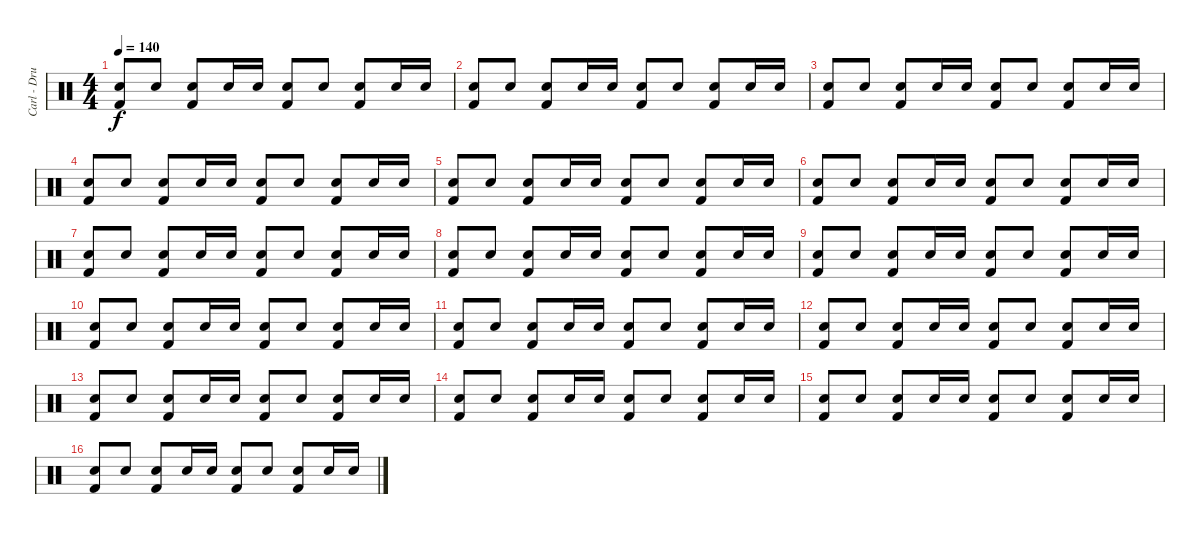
\track ("Carl - Drums" "Carl - Dru") {instrument percussion}
\staff {score}
\articulation defaults
\ts (4 4)
\tempo 140
\clef neutral
\ks c
("Electric Snare (hit)" "Kick (hit) 2").8{dy f} "Electric Snare (hit)".8 ("Electric Snare (hit)" "Kick (hit) 2").8 "Electric Snare (hit)".16 "Electric Snare (hit)".16 ("Electric Snare (hit)" "Kick (hit) 2").8 "Electric Snare (hit)".8 ("Electric Snare (hit)" "Kick (hit) 2").8 "Electric Snare (hit)".16 "Electric Snare (hit)".16 |
("Electric Snare (hit)" "Kick (hit) 2").8 "Electric Snare (hit)".8 ("Electric Snare (hit)" "Kick (hit) 2").8 "Electric Snare (hit)".16 "Electric Snare (hit)".16 ("Electric Snare (hit)" "Kick (hit) 2").8 "Electric Snare (hit)".8 ("Electric Snare (hit)" "Kick (hit) 2").8 "Electric Snare (hit)".16 "Electric Snare (hit)".16 |
("Electric Snare (hit)" "Kick (hit) 2").8 "Electric Snare (hit)".8 ("Electric Snare (hit)" "Kick (hit) 2").8 "Electric Snare (hit)".16 "Electric Snare (hit)".16 ("Electric Snare (hit)" "Kick (hit) 2").8 "Electric Snare (hit)".8 ("Electric Snare (hit)" "Kick (hit) 2").8 "Electric Snare (hit)".16 "Electric Snare (hit)".16 |
("Electric Snare (hit)" "Kick (hit) 2").8 "Electric Snare (hit)".8 ("Electric Snare (hit)" "Kick (hit) 2").8 "Electric Snare (hit)".16 "Electric Snare (hit)".16 ("Electric Snare (hit)" "Kick (hit) 2").8 "Electric Snare (hit)".8 ("Electric Snare (hit)" "Kick (hit) 2").8 "Electric Snare (hit)".16 "Electric Snare (hit)".16 |
("Electric Snare (hit)" "Kick (hit) 2").8 "Electric Snare (hit)".8 ("Electric Snare (hit)" "Kick (hit) 2").8 "Electric Snare (hit)".16 "Electric Snare (hit)".16 ("Electric Snare (hit)" "Kick (hit) 2").8 "Electric Snare (hit)".8 ("Electric Snare (hit)" "Kick (hit) 2").8 "Electric Snare (hit)".16 "Electric Snare (hit)".16 |
("Electric Snare (hit)" "Kick (hit) 2").8 "Electric Snare (hit)".8 ("Electric Snare (hit)" "Kick (hit) 2").8 "Electric Snare (hit)".16 "Electric Snare (hit)".16 ("Electric Snare (hit)" "Kick (hit) 2").8 "Electric Snare (hit)".8 ("Electric Snare (hit)" "Kick (hit) 2").8 "Electric Snare (hit)".16 "Electric Snare (hit)".16 |
("Electric Snare (hit)" "Kick (hit) 2").8 "Electric Snare (hit)".8 ("Electric Snare (hit)" "Kick (hit) 2").8 "Electric Snare (hit)".16 "Electric Snare (hit)".16 ("Electric Snare (hit)" "Kick (hit) 2").8 "Electric Snare (hit)".8 ("Electric Snare (hit)" "Kick (hit) 2").8 "Electric Snare (hit)".16 "Electric Snare (hit)".16 |
("Electric Snare (hit)" "Kick (hit) 2").8 "Electric Snare (hit)".8 ("Electric Snare (hit)" "Kick (hit) 2").8 "Electric Snare (hit)".16 "Electric Snare (hit)".16 ("Electric Snare (hit)" "Kick (hit) 2").8 "Electric Snare (hit)".8 ("Electric Snare (hit)" "Kick (hit) 2").8 "Electric Snare (hit)".16 "Electric Snare (hit)".16 |
("Electric Snare (hit)" "Kick (hit) 2").8 "Electric Snare (hit)".8 ("Electric Snare (hit)" "Kick (hit) 2").8 "Electric Snare (hit)".16 "Electric Snare (hit)".16 ("Electric Snare (hit)" "Kick (hit) 2").8 "Electric Snare (hit)".8 ("Electric Snare (hit)" "Kick (hit) 2").8 "Electric Snare (hit)".16 "Electric Snare (hit)".16 |
("Electric Snare (hit)" "Kick (hit) 2").8 "Electric Snare (hit)".8 ("Electric Snare (hit)" "Kick (hit) 2").8 "Electric Snare (hit)".16 "Electric Snare (hit)".16 ("Electric Snare (hit)" "Kick (hit) 2").8 "Electric Snare (hit)".8 ("Electric Snare (hit)" "Kick (hit) 2").8 "Electric Snare (hit)".16 "Electric Snare (hit)".16 |
("Electric Snare (hit)" "Kick (hit) 2").8 "Electric Snare (hit)".8 ("Electric Snare (hit)" "Kick (hit) 2").8 "Electric Snare (hit)".16 "Electric Snare (hit)".16 ("Electric Snare (hit)" "Kick (hit) 2").8 "Electric Snare (hit)".8 ("Electric Snare (hit)" "Kick (hit) 2").8 "Electric Snare (hit)".16 "Electric Snare (hit)".16 |
("Electric Snare (hit)" "Kick (hit) 2").8 "Electric Snare (hit)".8 ("Electric Snare (hit)" "Kick (hit) 2").8 "Electric Snare (hit)".16 "Electric Snare (hit)".16 ("Electric Snare (hit)" "Kick (hit) 2").8 "Electric Snare (hit)".8 ("Electric Snare (hit)" "Kick (hit) 2").8 "Electric Snare (hit)".16 "Electric Snare (hit)".16 |
("Electric Snare (hit)" "Kick (hit) 2").8 "Electric Snare (hit)".8 ("Electric Snare (hit)" "Kick (hit) 2").8 "Electric Snare (hit)".16 "Electric Snare (hit)".16 ("Electric Snare (hit)" "Kick (hit) 2").8 "Electric Snare (hit)".8 ("Electric Snare (hit)" "Kick (hit) 2").8 "Electric Snare (hit)".16 "Electric Snare (hit)".16 |
("Electric Snare (hit)" "Kick (hit) 2").8 "Electric Snare (hit)".8 ("Electric Snare (hit)" "Kick (hit) 2").8 "Electric Snare (hit)".16 "Electric Snare (hit)".16 ("Electric Snare (hit)" "Kick (hit) 2").8 "Electric Snare (hit)".8 ("Electric Snare (hit)" "Kick (hit) 2").8 "Electric Snare (hit)".16 "Electric Snare (hit)".16 |
("Electric Snare (hit)" "Kick (hit) 2").8 "Electric Snare (hit)".8 ("Electric Snare (hit)" "Kick (hit) 2").8 "Electric Snare (hit)".16 "Electric Snare (hit)".16 ("Electric Snare (hit)" "Kick (hit) 2").8 "Electric Snare (hit)".8 ("Electric Snare (hit)" "Kick (hit) 2").8 "Electric Snare (hit)".16 "Electric Snare (hit)".16 |
("Electric Snare (hit)" "Kick (hit) 2").8 "Electric Snare (hit)".8 ("Electric Snare (hit)" "Kick (hit) 2").8 "Electric Snare (hit)".16 "Electric Snare (hit)".16 ("Electric Snare (hit)" "Kick (hit) 2").8 "Electric Snare (hit)".8 ("Electric Snare (hit)" "Kick (hit) 2").8 "Electric Snare (hit)".16 "Electric Snare (hit)".16
